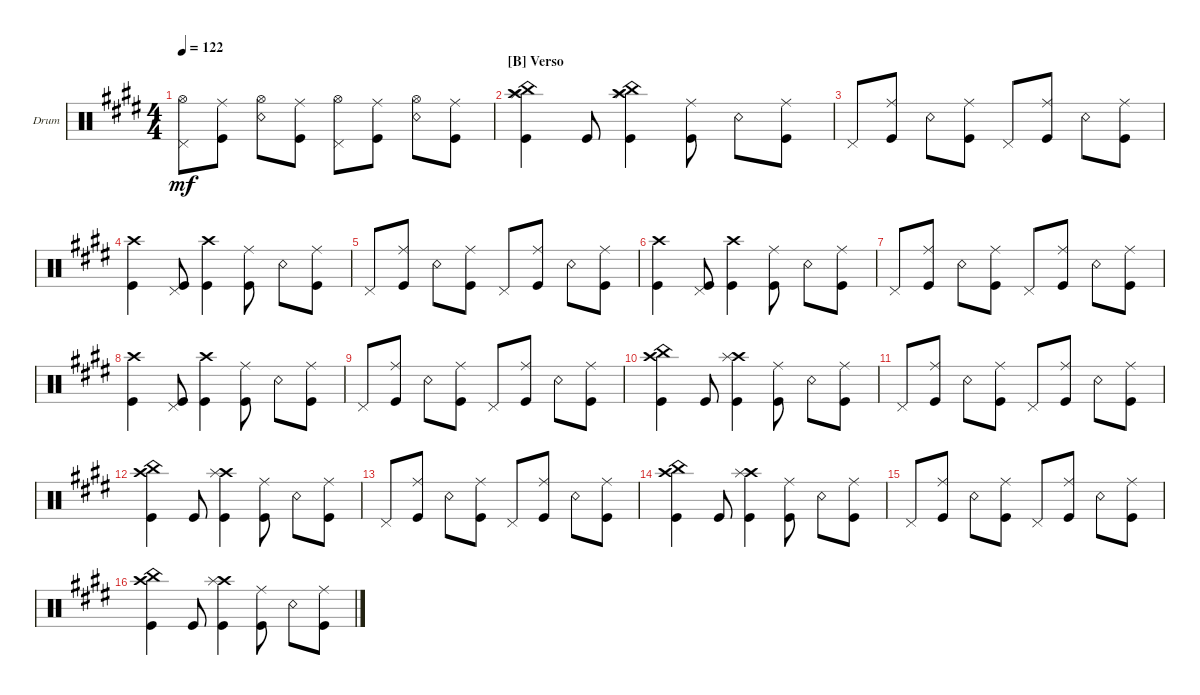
\defaultSystemsLayout 4
\bracketExtendMode groupsimilarinstruments
\firstSystemTrackNameOrientation horizontal
\otherSystemsTrackNameOrientation horizontal
\track ("Bateria" "Drum") {multiBarRest instrument percussion}
\staff {score}
\articulation defaults
\ts (4 4)
\tempo 122
\clef neutral
\ks e
("Pedal Hi-Hat (hit)" "Hi-Hat (open)").8{dy mf} ("Kick (hit)" "Ride (middle)").8 ("Snare (rim shot)" "Hi-Hat (open)").8 ("Kick (hit)" "Ride (middle)").8 ("Pedal Hi-Hat (hit)" "Hi-Hat (open)").8 ("Kick (hit)" "Ride (middle)").8 ("Snare (rim shot)" "Hi-Hat (open)").8 ("Kick (hit)" "Ride (middle)").8 |
\section ("B" "Verso")
("Kick (hit)" "Crash high (hit)" "China (hit)" "Splash (hit)").4 "Kick (hit)".8 ("Kick (hit)" "Crash high (hit)" "China (hit)" "Splash (hit)").4 ("Kick (hit)" "Ride (middle)").8 "Snare (rim shot)".8 ("Kick (hit)" "Ride (middle)").8 |
"Pedal Hi-Hat (hit)".8 ("Kick (hit)" "Ride (middle)").8 "Snare (rim shot)".8 ("Kick (hit)" "Ride (middle)").8 "Pedal Hi-Hat (hit)".8 ("Kick (hit)" "Ride (middle)").8 "Snare (rim shot)".8 ("Kick (hit)" "Ride (middle)").8 |
("Kick (hit)" "Crash high (hit)").4 ("Kick (hit)" "Pedal Hi-Hat (hit)").8 ("Kick (hit)" "Crash high (hit)").4 ("Kick (hit)" "Ride (middle)").8 "Snare (rim shot)".8 ("Kick (hit)" "Ride (middle)").8 |
"Pedal Hi-Hat (hit)".8 ("Kick (hit)" "Ride (middle)").8 "Snare (rim shot)".8 ("Kick (hit)" "Ride (middle)").8 "Pedal Hi-Hat (hit)".8 ("Kick (hit)" "Ride (middle)").8 "Snare (rim shot)".8 ("Kick (hit)" "Ride (middle)").8 |
("Kick (hit)" "Crash high (hit)").4 ("Kick (hit)" "Pedal Hi-Hat (hit)").8 ("Kick (hit)" "Crash high (hit)").4 ("Kick (hit)" "Ride (middle)").8 "Snare (rim shot)".8 ("Kick (hit)" "Ride (middle)").8 |
"Pedal Hi-Hat (hit)".8 ("Kick (hit)" "Ride (middle)").8 "Snare (rim shot)".8 ("Kick (hit)" "Ride (middle)").8 "Pedal Hi-Hat (hit)".8 ("Kick (hit)" "Ride (middle)").8 "Snare (rim shot)".8 ("Kick (hit)" "Ride (middle)").8 |
("Kick (hit)" "Crash high (hit)").4 ("Kick (hit)" "Pedal Hi-Hat (hit)").8 ("Kick (hit)" "Crash high (hit)").4 ("Kick (hit)" "Ride (middle)").8 "Snare (rim shot)".8 ("Kick (hit)" "Ride (middle)").8 |
"Pedal Hi-Hat (hit)".8 ("Kick (hit)" "Ride (middle)").8 "Snare (rim shot)".8 ("Kick (hit)" "Ride (middle)").8 "Pedal Hi-Hat (hit)".8 ("Kick (hit)" "Ride (middle)").8 "Snare (rim shot)".8 ("Kick (hit)" "Ride (middle)").8 |
("Kick (hit)" "Crash high (hit)" "China (hit)").4 "Kick (hit)".8 ("Kick (hit)" "Crash high (hit)" "Splash (hit)").4 ("Kick (hit)" "Ride (middle)").8 "Snare (rim shot)".8 ("Kick (hit)" "Ride (middle)").8 |
"Pedal Hi-Hat (hit)".8 ("Kick (hit)" "Ride (middle)").8 "Snare (rim shot)".8 ("Kick (hit)" "Ride (middle)").8 "Pedal Hi-Hat (hit)".8 ("Kick (hit)" "Ride (middle)").8 "Snare (rim shot)".8 ("Kick (hit)" "Ride (middle)").8 |
("Kick (hit)" "Crash high (hit)" "China (hit)").4 "Kick (hit)".8 ("Kick (hit)" "Crash high (hit)" "Splash (hit)").4 ("Kick (hit)" "Ride (middle)").8 "Snare (rim shot)".8 ("Kick (hit)" "Ride (middle)").8 |
"Pedal Hi-Hat (hit)".8 ("Kick (hit)" "Ride (middle)").8 "Snare (rim shot)".8 ("Kick (hit)" "Ride (middle)").8 "Pedal Hi-Hat (hit)".8 ("Kick (hit)" "Ride (middle)").8 "Snare (rim shot)".8 ("Kick (hit)" "Ride (middle)").8 |
("Kick (hit)" "Crash high (hit)" "China (hit)").4 "Kick (hit)".8 ("Kick (hit)" "Crash high (hit)" "Splash (hit)").4 ("Kick (hit)" "Ride (middle)").8 "Snare (rim shot)".8 ("Kick (hit)" "Ride (middle)").8 |
"Pedal Hi-Hat (hit)".8 ("Kick (hit)" "Ride (middle)").8 "Snare (rim shot)".8 ("Kick (hit)" "Ride (middle)").8 "Pedal Hi-Hat (hit)".8 ("Kick (hit)" "Ride (middle)").8 "Snare (rim shot)".8 ("Kick (hit)" "Ride (middle)").8 |
("Kick (hit)" "Crash high (hit)" "China (hit)").4 "Kick (hit)".8 ("Kick (hit)" "Crash high (hit)" "Splash (hit)").4 ("Kick (hit)" "Ride (middle)").8 "Snare (rim shot)".8 ("Kick (hit)" "Ride (middle)").8
